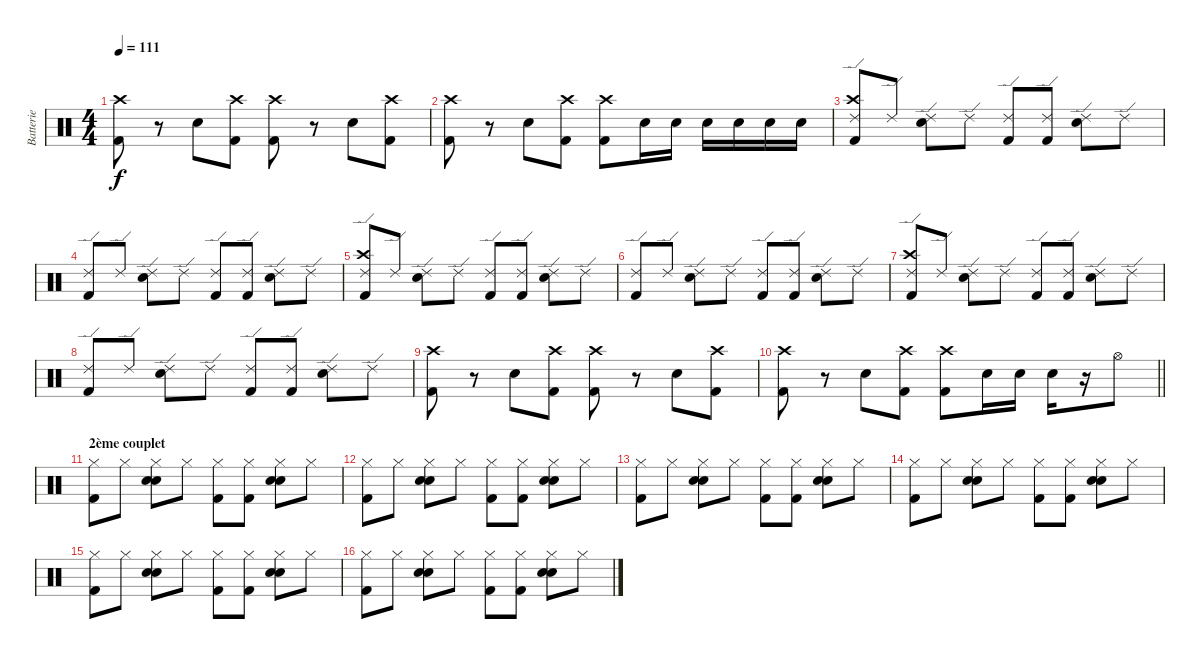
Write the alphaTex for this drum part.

\track ("Batterie" "Batterie") {instrument percussion}
\staff {score}
\articulation defaults
\ts (4 4)
\tempo 111
\clef neutral
\ks c
("Kick (hit) 2" "Crash high (hit)").8{dy f} r.8 "Snare (hit) 2".8 ("Kick (hit) 2" "Crash high (hit)").8 ("Kick (hit) 2" "Crash high (hit)").8 r.8 "Snare (hit) 2".8 ("Kick (hit) 2" "Crash high (hit)").8 |
("Kick (hit) 2" "Crash high (hit)").8 r.8 "Snare (hit) 2".8 ("Kick (hit) 2" "Crash high (hit)").8 ("Kick (hit) 2" "Crash high (hit)").8 "Snare (hit) 2".16 "Snare (hit) 2".16 "Snare (hit) 2".16 "Snare (hit) 2".16 "Snare (hit) 2".16 "Snare (hit) 2".16 |
("Kick (hit) 2" "Ride (edge) 2" "Crash high (hit)").8 "Ride (edge) 2".8 ("Snare (hit) 2" "Ride (edge) 2").8 "Ride (edge) 2".8 ("Kick (hit) 2" "Ride (edge) 2").8 ("Kick (hit) 2" "Ride (edge) 2").8 ("Snare (hit) 2" "Ride (edge) 2").8 "Ride (edge) 2".8 |
("Kick (hit) 2" "Ride (edge) 2").8 "Ride (edge) 2".8 ("Snare (hit) 2" "Ride (edge) 2").8 "Ride (edge) 2".8 ("Kick (hit) 2" "Ride (edge) 2").8 ("Kick (hit) 2" "Ride (edge) 2").8 ("Snare (hit) 2" "Ride (edge) 2").8 "Ride (edge) 2".8 |
("Kick (hit) 2" "Ride (edge) 2" "Crash high (hit)").8 "Ride (edge) 2".8 ("Snare (hit) 2" "Ride (edge) 2").8 "Ride (edge) 2".8 ("Kick (hit) 2" "Ride (edge) 2").8 ("Kick (hit) 2" "Ride (edge) 2").8 ("Snare (hit) 2" "Ride (edge) 2").8 "Ride (edge) 2".8 |
("Kick (hit) 2" "Ride (edge) 2").8 "Ride (edge) 2".8 ("Snare (hit) 2" "Ride (edge) 2").8 "Ride (edge) 2".8 ("Kick (hit) 2" "Ride (edge) 2").8 ("Kick (hit) 2" "Ride (edge) 2").8 ("Snare (hit) 2" "Ride (edge) 2").8 "Ride (edge) 2".8 |
("Kick (hit) 2" "Ride (edge) 2" "Crash high (hit)").8 "Ride (edge) 2".8 ("Snare (hit) 2" "Ride (edge) 2").8 "Ride (edge) 2".8 ("Kick (hit) 2" "Ride (edge) 2").8 ("Kick (hit) 2" "Ride (edge) 2").8 ("Snare (hit) 2" "Ride (edge) 2").8 "Ride (edge) 2".8 |
("Kick (hit) 2" "Ride (edge) 2").8 "Ride (edge) 2".8 ("Snare (hit) 2" "Ride (edge) 2").8 "Ride (edge) 2".8 ("Kick (hit) 2" "Ride (edge) 2").8 ("Kick (hit) 2" "Ride (edge) 2").8 ("Snare (hit) 2" "Ride (edge) 2").8 "Ride (edge) 2".8 |
("Kick (hit) 2" "Crash high (hit)").8 r.8 "Snare (hit) 2".8 ("Kick (hit) 2" "Crash high (hit)").8 ("Kick (hit) 2" "Crash high (hit)").8 r.8 "Snare (hit) 2".8 ("Kick (hit) 2" "Crash high (hit)").8 |
\barLineRight lightlight
("Kick (hit) 2" "Crash high (hit)").8 r.8 "Snare (hit) 2".8 ("Kick (hit) 2" "Crash high (hit)").8 ("Kick (hit) 2" "Crash high (hit)").8 "Snare (hit) 2".16 "Snare (hit) 2".16 "Snare (hit) 2".16 r.16 "Hi-Hat (open)".8 |
\section ("" "2ème couplet")
("Kick (hit) 2" "Hi-Hat (closed)").8 "Hi-Hat (closed)".8 ("Electric Snare (hit)" "Hi-Hat (closed)" "Hand Clap (hit)").8 "Hi-Hat (closed)".8 ("Kick (hit) 2" "Hi-Hat (closed)").8 ("Kick (hit) 2" "Hi-Hat (closed)").8 ("Electric Snare (hit)" "Hi-Hat (closed)" "Hand Clap (hit)").8 "Hi-Hat (closed)".8 |
("Kick (hit) 2" "Hi-Hat (closed)").8 "Hi-Hat (closed)".8 ("Electric Snare (hit)" "Hi-Hat (closed)" "Hand Clap (hit)").8 "Hi-Hat (closed)".8 ("Kick (hit) 2" "Hi-Hat (closed)").8 ("Kick (hit) 2" "Hi-Hat (closed)").8 ("Electric Snare (hit)" "Hi-Hat (closed)" "Hand Clap (hit)").8 "Hi-Hat (closed)".8 |
("Kick (hit) 2" "Hi-Hat (closed)").8 "Hi-Hat (closed)".8 ("Electric Snare (hit)" "Hi-Hat (closed)" "Hand Clap (hit)").8 "Hi-Hat (closed)".8 ("Kick (hit) 2" "Hi-Hat (closed)").8 ("Kick (hit) 2" "Hi-Hat (closed)").8 ("Electric Snare (hit)" "Hi-Hat (closed)" "Hand Clap (hit)").8 "Hi-Hat (closed)".8 |
("Kick (hit) 2" "Hi-Hat (closed)").8 "Hi-Hat (closed)".8 ("Electric Snare (hit)" "Hi-Hat (closed)" "Hand Clap (hit)").8 "Hi-Hat (closed)".8 ("Kick (hit) 2" "Hi-Hat (closed)").8 ("Kick (hit) 2" "Hi-Hat (closed)").8 ("Electric Snare (hit)" "Hi-Hat (closed)" "Hand Clap (hit)").8 "Hi-Hat (closed)".8 |
("Kick (hit) 2" "Hi-Hat (closed)").8 "Hi-Hat (closed)".8 ("Electric Snare (hit)" "Hi-Hat (closed)" "Hand Clap (hit)").8 "Hi-Hat (closed)".8 ("Kick (hit) 2" "Hi-Hat (closed)").8 ("Kick (hit) 2" "Hi-Hat (closed)").8 ("Electric Snare (hit)" "Hi-Hat (closed)" "Hand Clap (hit)").8 "Hi-Hat (closed)".8 |
("Kick (hit) 2" "Hi-Hat (closed)").8 "Hi-Hat (closed)".8 ("Electric Snare (hit)" "Hi-Hat (closed)" "Hand Clap (hit)").8 "Hi-Hat (closed)".8 ("Kick (hit) 2" "Hi-Hat (closed)").8 ("Kick (hit) 2" "Hi-Hat (closed)").8 ("Electric Snare (hit)" "Hi-Hat (closed)" "Hand Clap (hit)").8 "Hi-Hat (closed)".8
